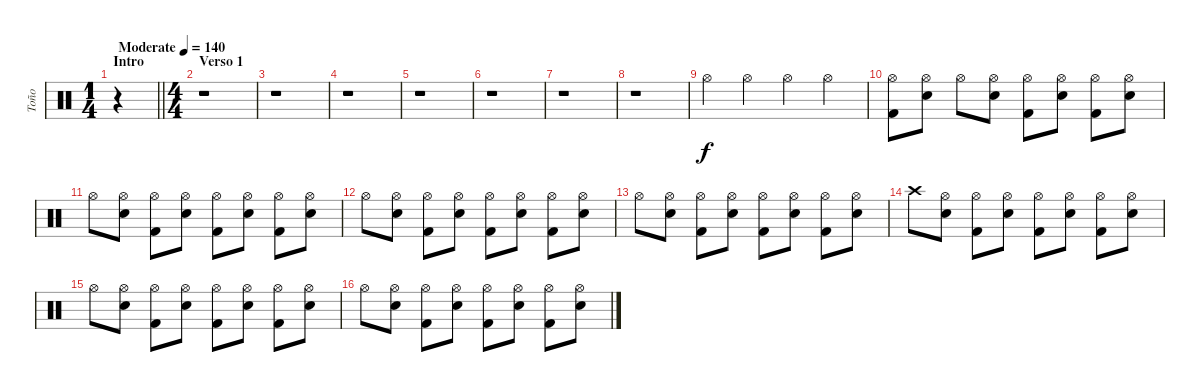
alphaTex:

\track ("Toño" "Toño") {instrument percussion}
\staff {score}
\articulation defaults
\ts (1 4)
\section ("" "Intro")
\tempo (140 "Moderate")
\clef neutral
\barLineRight lightlight
\ks c
r.4{dy f} |
\ts (4 4)
\section ("" "Verso 1")
r.1 |
r.1 |
r.1 |
r.1 |
r.1 |
r.1 |
r.1 |
"Hi-Hat (open)".4 "Hi-Hat (open)".4 "Hi-Hat (open)".4 "Hi-Hat (open)".4 |
("Hi-Hat (open)" "Kick (hit) 2").8 ("Hi-Hat (open)" "Electric Snare (hit)").8 "Hi-Hat (open)".8 ("Hi-Hat (open)" "Electric Snare (hit)").8 ("Hi-Hat (open)" "Kick (hit) 2").8 ("Hi-Hat (open)" "Electric Snare (hit)").8 ("Hi-Hat (open)" "Kick (hit) 2").8 ("Hi-Hat (open)" "Electric Snare (hit)").8 |
"Hi-Hat (open)".8 ("Hi-Hat (open)" "Electric Snare (hit)").8 ("Hi-Hat (open)" "Kick (hit) 2").8 ("Hi-Hat (open)" "Electric Snare (hit)").8 ("Hi-Hat (open)" "Kick (hit) 2").8 ("Hi-Hat (open)" "Electric Snare (hit)").8 ("Hi-Hat (open)" "Kick (hit) 2").8 ("Hi-Hat (open)" "Electric Snare (hit)").8 |
"Hi-Hat (open)".8 ("Hi-Hat (open)" "Electric Snare (hit)").8 ("Hi-Hat (open)" "Kick (hit) 2").8 ("Hi-Hat (open)" "Electric Snare (hit)").8 ("Hi-Hat (open)" "Kick (hit) 2").8 ("Hi-Hat (open)" "Electric Snare (hit)").8 ("Hi-Hat (open)" "Kick (hit) 2").8 ("Hi-Hat (open)" "Electric Snare (hit)").8 |
"Hi-Hat (open)".8 ("Hi-Hat (open)" "Electric Snare (hit)").8 ("Hi-Hat (open)" "Kick (hit) 2").8 ("Hi-Hat (open)" "Electric Snare (hit)").8 ("Hi-Hat (open)" "Kick (hit) 2").8 ("Hi-Hat (open)" "Electric Snare (hit)").8 ("Hi-Hat (open)" "Kick (hit) 2").8 ("Hi-Hat (open)" "Electric Snare (hit)").8 |
"Crash high (hit)".8 ("Hi-Hat (open)" "Electric Snare (hit)").8 ("Hi-Hat (open)" "Kick (hit) 2").8 ("Hi-Hat (open)" "Electric Snare (hit)").8 ("Hi-Hat (open)" "Kick (hit) 2").8 ("Hi-Hat (open)" "Electric Snare (hit)").8 ("Hi-Hat (open)" "Kick (hit) 2").8 ("Hi-Hat (open)" "Electric Snare (hit)").8 |
"Hi-Hat (open)".8 ("Hi-Hat (open)" "Electric Snare (hit)").8 ("Hi-Hat (open)" "Kick (hit) 2").8 ("Hi-Hat (open)" "Electric Snare (hit)").8 ("Hi-Hat (open)" "Kick (hit) 2").8 ("Hi-Hat (open)" "Electric Snare (hit)").8 ("Hi-Hat (open)" "Kick (hit) 2").8 ("Hi-Hat (open)" "Electric Snare (hit)").8 |
"Hi-Hat (open)".8 ("Hi-Hat (open)" "Electric Snare (hit)").8 ("Hi-Hat (open)" "Kick (hit) 2").8 ("Hi-Hat (open)" "Electric Snare (hit)").8 ("Hi-Hat (open)" "Kick (hit) 2").8 ("Hi-Hat (open)" "Electric Snare (hit)").8 ("Hi-Hat (open)" "Kick (hit) 2").8 ("Hi-Hat (open)" "Electric Snare (hit)").8
